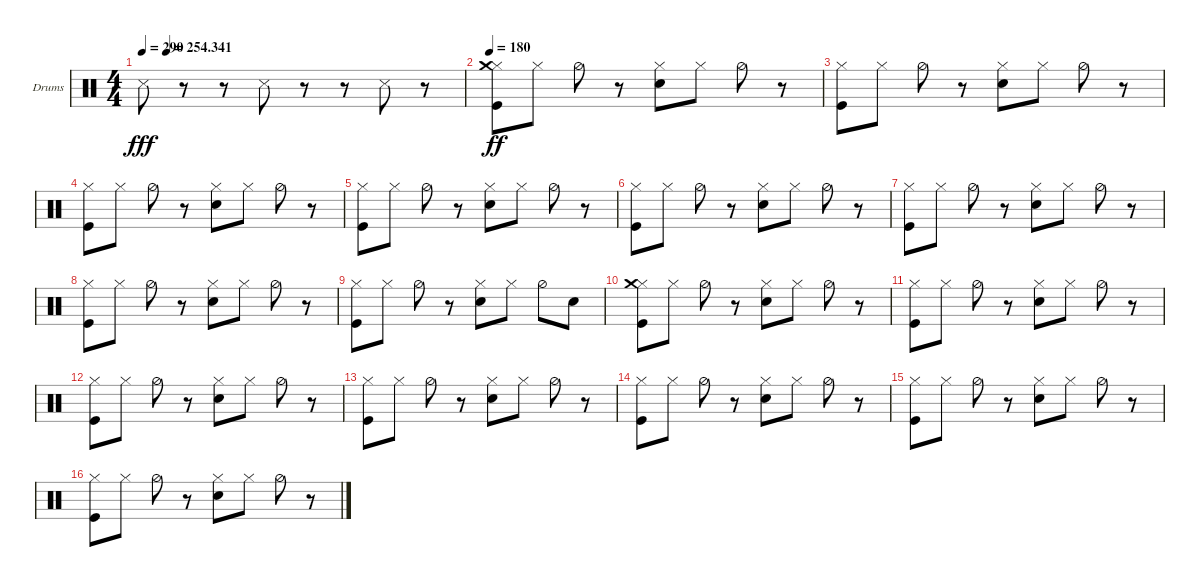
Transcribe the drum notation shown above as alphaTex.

\defaultSystemsLayout 4
\bracketExtendMode groupsimilarinstruments
\firstSystemTrackNameOrientation horizontal
\otherSystemsTrackNameOrientation horizontal
\track ("Drumkit" "Drums") {instrument percussion}
\staff {score}
\articulation defaults
\ts (4 4)
\tempo 290
\tempo (254.341 0.075)
\clef neutral
\ks c "Snare (side stick) 3".8{dy fff}
r.8 r.8 "Snare (side stick) 3".8 r.8 r.8 "Snare (side stick) 3".8 r.8 |
\tempo 180
("Kick (hit)" "Hi-Hat (closed)" "Crash medium (hit)").8{dy ff} "Hi-Hat (closed)".8 "Hi-Hat (half)".8 r.8 ("Snare (hit) 2" "Hi-Hat (closed)").8 "Hi-Hat (closed)".8 "Hi-Hat (half)".8 r.8 |
("Kick (hit)" "Hi-Hat (closed)").8 "Hi-Hat (closed)".8 "Hi-Hat (half)".8 r.8 ("Snare (hit) 2" "Hi-Hat (closed)").8 "Hi-Hat (closed)".8 "Hi-Hat (half)".8 r.8 |
("Kick (hit)" "Hi-Hat (closed)").8 "Hi-Hat (closed)".8 "Hi-Hat (half)".8 r.8 ("Snare (hit) 2" "Hi-Hat (closed)").8 "Hi-Hat (closed)".8 "Hi-Hat (half)".8 r.8 |
("Kick (hit)" "Hi-Hat (closed)").8 "Hi-Hat (closed)".8 "Hi-Hat (half)".8 r.8 ("Snare (hit) 2" "Hi-Hat (closed)").8 "Hi-Hat (closed)".8 "Hi-Hat (half)".8 r.8 |
("Kick (hit)" "Hi-Hat (closed)").8 "Hi-Hat (closed)".8 "Hi-Hat (half)".8 r.8 ("Snare (hit) 2" "Hi-Hat (closed)").8 "Hi-Hat (closed)".8 "Hi-Hat (half)".8 r.8 |
("Kick (hit)" "Hi-Hat (closed)").8 "Hi-Hat (closed)".8 "Hi-Hat (half)".8 r.8 ("Snare (hit) 2" "Hi-Hat (closed)").8 "Hi-Hat (closed)".8 "Hi-Hat (half)".8 r.8 |
("Kick (hit)" "Hi-Hat (closed)").8 "Hi-Hat (closed)".8 "Hi-Hat (half)".8 r.8 ("Snare (hit) 2" "Hi-Hat (closed)").8 "Hi-Hat (closed)".8 "Hi-Hat (half)".8 r.8 |
("Kick (hit)" "Hi-Hat (closed)").8 "Hi-Hat (closed)".8 "Hi-Hat (half)".8 r.8 ("Snare (hit) 2" "Hi-Hat (closed)").8 "Hi-Hat (closed)".8 "Hi-Hat (half)".8 "Snare (hit) 2".8 |
("Kick (hit)" "Hi-Hat (closed)" "Crash medium (hit)").8 "Hi-Hat (closed)".8 "Hi-Hat (half)".8 r.8 ("Snare (hit) 2" "Hi-Hat (closed)").8 "Hi-Hat (closed)".8 "Hi-Hat (half)".8 r.8 |
("Kick (hit)" "Hi-Hat (closed)").8 "Hi-Hat (closed)".8 "Hi-Hat (half)".8 r.8 ("Snare (hit) 2" "Hi-Hat (closed)").8 "Hi-Hat (closed)".8 "Hi-Hat (half)".8 r.8 |
("Kick (hit)" "Hi-Hat (closed)").8 "Hi-Hat (closed)".8 "Hi-Hat (half)".8 r.8 ("Snare (hit) 2" "Hi-Hat (closed)").8 "Hi-Hat (closed)".8 "Hi-Hat (half)".8 r.8 |
("Kick (hit)" "Hi-Hat (closed)").8 "Hi-Hat (closed)".8 "Hi-Hat (half)".8 r.8 ("Snare (hit) 2" "Hi-Hat (closed)").8 "Hi-Hat (closed)".8 "Hi-Hat (half)".8 r.8 |
("Kick (hit)" "Hi-Hat (closed)").8 "Hi-Hat (closed)".8 "Hi-Hat (half)".8 r.8 ("Snare (hit) 2" "Hi-Hat (closed)").8 "Hi-Hat (closed)".8 "Hi-Hat (half)".8 r.8 |
("Kick (hit)" "Hi-Hat (closed)").8 "Hi-Hat (closed)".8 "Hi-Hat (half)".8 r.8 ("Snare (hit) 2" "Hi-Hat (closed)").8 "Hi-Hat (closed)".8 "Hi-Hat (half)".8 r.8 |
("Kick (hit)" "Hi-Hat (closed)").8 "Hi-Hat (closed)".8 "Hi-Hat (half)".8 r.8 ("Snare (hit) 2" "Hi-Hat (closed)").8 "Hi-Hat (closed)".8 "Hi-Hat (half)".8 r.8
